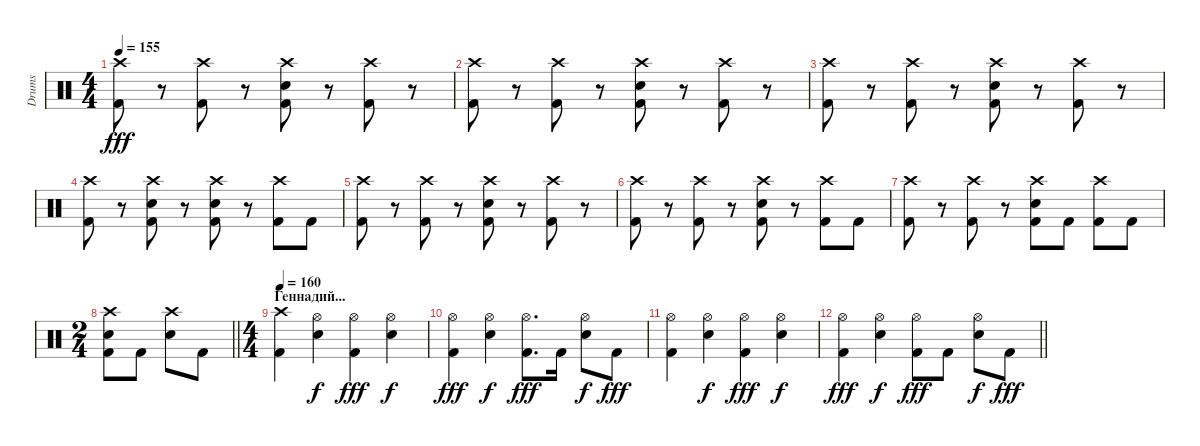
\track ("Drums" "Drums") {instrument percussion}
\staff {score}
\articulation defaults
\ts (4 4)
\tempo 155
\clef neutral
\ks c
("Crash high (hit)" "Kick (hit) 2").8{dy fff} r.8 ("Crash high (hit)" "Kick (hit) 2").8 r.8 ("Crash high (hit)" "Electric Snare (hit)" "Kick (hit) 2").8 r.8 ("Crash high (hit)" "Kick (hit) 2").8 r.8 |
("Crash high (hit)" "Kick (hit) 2").8 r.8 ("Crash high (hit)" "Kick (hit) 2").8 r.8 ("Crash high (hit)" "Electric Snare (hit)" "Kick (hit) 2").8 r.8 ("Crash high (hit)" "Kick (hit) 2").8 r.8 |
("Crash high (hit)" "Kick (hit) 2").8 r.8 ("Crash high (hit)" "Kick (hit) 2").8 r.8 ("Crash high (hit)" "Electric Snare (hit)" "Kick (hit) 2").8 r.8 ("Crash high (hit)" "Kick (hit) 2").8 r.8 |
("Crash high (hit)" "Kick (hit) 2").8 r.8 ("Crash high (hit)" "Electric Snare (hit)" "Kick (hit) 2").8 r.8 ("Crash high (hit)" "Electric Snare (hit)" "Kick (hit) 2").8 r.8 ("Crash high (hit)" "Kick (hit) 2").8 "Kick (hit) 2".8 |
("Crash high (hit)" "Kick (hit) 2").8 r.8 ("Crash high (hit)" "Kick (hit) 2").8 r.8 ("Crash high (hit)" "Electric Snare (hit)" "Kick (hit) 2").8 r.8 ("Crash high (hit)" "Kick (hit) 2").8 r.8 |
("Crash high (hit)" "Kick (hit) 2").8 r.8 ("Crash high (hit)" "Kick (hit) 2").8 r.8 ("Crash high (hit)" "Electric Snare (hit)" "Kick (hit) 2").8 r.8 ("Crash high (hit)" "Kick (hit) 2").8 "Kick (hit) 2".8 |
("Crash high (hit)" "Kick (hit) 2").8 r.8 ("Crash high (hit)" "Kick (hit) 2").8 r.8 ("Crash high (hit)" "Electric Snare (hit)" "Kick (hit) 2").8 "Kick (hit) 2".8 ("Crash high (hit)" "Kick (hit) 2").8 "Kick (hit) 2".8 |
\ts (2 4)
\barLineRight lightlight
("Crash high (hit)" "Electric Snare (hit)" "Kick (hit) 2").8 "Kick (hit) 2".8 ("Crash high (hit)" "Electric Snare (hit)").8 "Kick (hit) 2".8 |
\ts (4 4)
\section ("" "Геннадий...")
\tempo 160
("Crash high (hit)" "Kick (hit) 2").4 ("Hi-Hat (open)" "Electric Snare (hit)").4{dy f} ("Hi-Hat (open)" "Kick (hit) 2").4{dy fff} ("Hi-Hat (open)" "Electric Snare (hit)").4{dy f} |
("Hi-Hat (open)" "Kick (hit) 2").4{dy fff} ("Hi-Hat (open)" "Electric Snare (hit)").4{dy f} ("Hi-Hat (open)" "Kick (hit) 2").8{d dy fff} "Kick (hit) 2".16 ("Hi-Hat (open)" "Electric Snare (hit)").8{dy f} "Kick (hit) 2".8{dy fff} |
("Hi-Hat (open)" "Kick (hit) 2").4 ("Hi-Hat (open)" "Electric Snare (hit)").4{dy f} ("Hi-Hat (open)" "Kick (hit) 2").4{dy fff} ("Hi-Hat (open)" "Electric Snare (hit)").4{dy f} |
\barLineRight lightlight
("Hi-Hat (open)" "Kick (hit) 2").4{dy fff} ("Hi-Hat (open)" "Electric Snare (hit)").4{dy f} ("Hi-Hat (open)" "Kick (hit) 2").8{dy fff} "Kick (hit) 2".8 ("Hi-Hat (open)" "Electric Snare (hit)").8{dy f} "Kick (hit) 2".8{dy fff}
